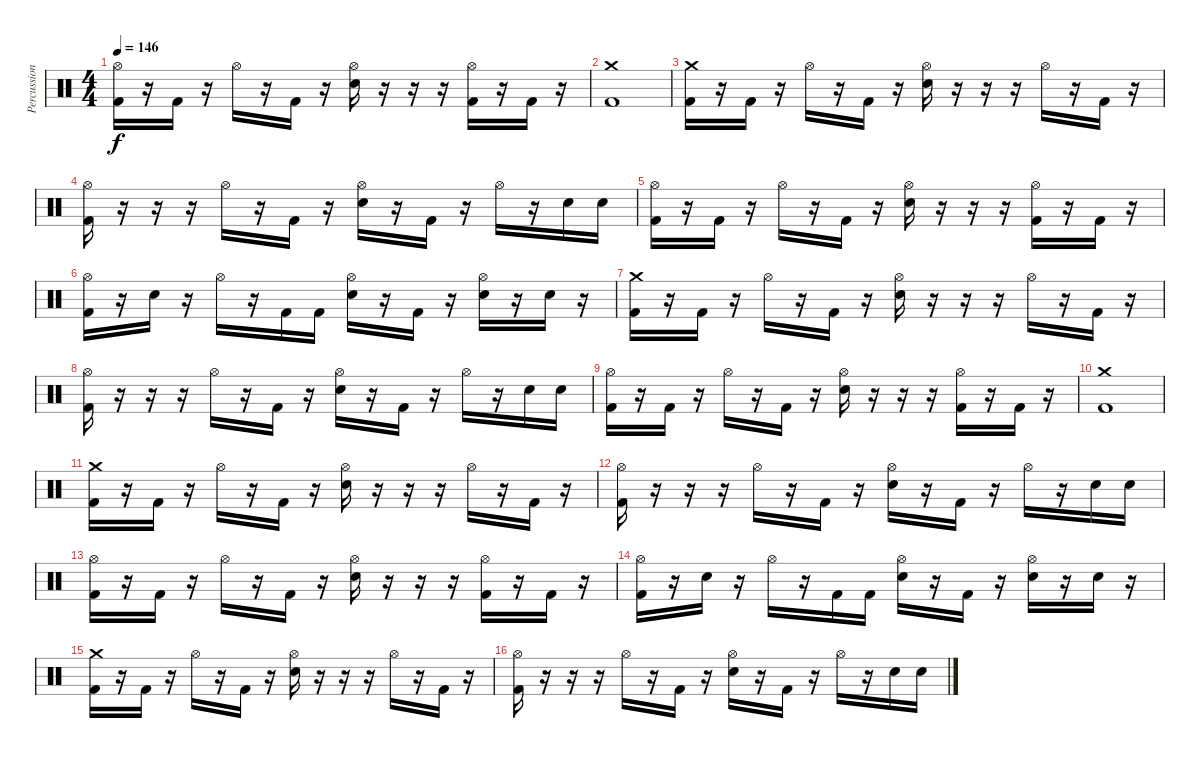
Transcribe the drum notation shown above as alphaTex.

\track ("Percussion" "Percussion") {instrument percussion}
\staff {score}
\articulation defaults
\ts (4 4)
\tempo 146
\clef neutral
\ks c
("Hi-Hat (open)" "Kick (hit) 2").16{dy f} r.16 "Kick (hit) 2".16 r.16 "Hi-Hat (open)".16 r.16 "Kick (hit) 2".16 r.16 ("Hi-Hat (open)" "Snare (hit) 2").16 r.16 r.16 r.16 ("Hi-Hat (open)" "Kick (hit) 2").16 r.16 "Kick (hit) 2".16 r.16 |
("Crash medium (hit)" "Kick (hit) 2").1 |
("Crash medium (hit)" "Kick (hit) 2").16 r.16 "Kick (hit) 2".16 r.16 "Hi-Hat (open)".16 r.16 "Kick (hit) 2".16 r.16 ("Hi-Hat (open)" "Snare (hit) 2").16 r.16 r.16 r.16 "Hi-Hat (open)".16 r.16 "Kick (hit) 2".16 r.16 |
("Hi-Hat (open)" "Kick (hit) 2").16 r.16 r.16 r.16 "Hi-Hat (open)".16 r.16 "Kick (hit) 2".16 r.16 ("Hi-Hat (open)" "Snare (hit) 2").16 r.16 "Kick (hit) 2".16 r.16 "Hi-Hat (open)".16 r.16 "Snare (hit) 2".16 "Snare (hit) 2".16 |
("Hi-Hat (open)" "Kick (hit) 2").16 r.16 "Kick (hit) 2".16 r.16 "Hi-Hat (open)".16 r.16 "Kick (hit) 2".16 r.16 ("Hi-Hat (open)" "Snare (hit) 2").16 r.16 r.16 r.16 ("Hi-Hat (open)" "Kick (hit) 2").16 r.16 "Kick (hit) 2".16 r.16 |
("Hi-Hat (open)" "Kick (hit) 2").16 r.16 "Snare (hit) 2".16 r.16 "Hi-Hat (open)".16 r.16 "Kick (hit) 2".16 "Kick (hit) 2".16 ("Hi-Hat (open)" "Snare (hit) 2").16 r.16 "Kick (hit) 2".16 r.16 ("Hi-Hat (open)" "Snare (hit) 2").16 r.16 "Snare (hit) 2".16 r.16 |
("Crash medium (hit)" "Kick (hit) 2").16 r.16 "Kick (hit) 2".16 r.16 "Hi-Hat (open)".16 r.16 "Kick (hit) 2".16 r.16 ("Hi-Hat (open)" "Snare (hit) 2").16 r.16 r.16 r.16 "Hi-Hat (open)".16 r.16 "Kick (hit) 2".16 r.16 |
("Hi-Hat (open)" "Kick (hit) 2").16 r.16 r.16 r.16 "Hi-Hat (open)".16 r.16 "Kick (hit) 2".16 r.16 ("Hi-Hat (open)" "Snare (hit) 2").16 r.16 "Kick (hit) 2".16 r.16 "Hi-Hat (open)".16 r.16 "Snare (hit) 2".16 "Snare (hit) 2".16 |
("Hi-Hat (open)" "Kick (hit) 2").16 r.16 "Kick (hit) 2".16 r.16 "Hi-Hat (open)".16 r.16 "Kick (hit) 2".16 r.16 ("Hi-Hat (open)" "Snare (hit) 2").16 r.16 r.16 r.16 ("Hi-Hat (open)" "Kick (hit) 2").16 r.16 "Kick (hit) 2".16 r.16 |
("Crash medium (hit)" "Kick (hit) 2").1 |
("Crash medium (hit)" "Kick (hit) 2").16 r.16 "Kick (hit) 2".16 r.16 "Hi-Hat (open)".16 r.16 "Kick (hit) 2".16 r.16 ("Hi-Hat (open)" "Snare (hit) 2").16 r.16 r.16 r.16 "Hi-Hat (open)".16 r.16 "Kick (hit) 2".16 r.16 |
("Hi-Hat (open)" "Kick (hit) 2").16 r.16 r.16 r.16 "Hi-Hat (open)".16 r.16 "Kick (hit) 2".16 r.16 ("Hi-Hat (open)" "Snare (hit) 2").16 r.16 "Kick (hit) 2".16 r.16 "Hi-Hat (open)".16 r.16 "Snare (hit) 2".16 "Snare (hit) 2".16 |
("Hi-Hat (open)" "Kick (hit) 2").16 r.16 "Kick (hit) 2".16 r.16 "Hi-Hat (open)".16 r.16 "Kick (hit) 2".16 r.16 ("Hi-Hat (open)" "Snare (hit) 2").16 r.16 r.16 r.16 ("Hi-Hat (open)" "Kick (hit) 2").16 r.16 "Kick (hit) 2".16 r.16 |
("Hi-Hat (open)" "Kick (hit) 2").16 r.16 "Snare (hit) 2".16 r.16 "Hi-Hat (open)".16 r.16 "Kick (hit) 2".16 "Kick (hit) 2".16 ("Hi-Hat (open)" "Snare (hit) 2").16 r.16 "Kick (hit) 2".16 r.16 ("Hi-Hat (open)" "Snare (hit) 2").16 r.16 "Snare (hit) 2".16 r.16 |
("Crash medium (hit)" "Kick (hit) 2").16 r.16 "Kick (hit) 2".16 r.16 "Hi-Hat (open)".16 r.16 "Kick (hit) 2".16 r.16 ("Hi-Hat (open)" "Snare (hit) 2").16 r.16 r.16 r.16 "Hi-Hat (open)".16 r.16 "Kick (hit) 2".16 r.16 |
("Hi-Hat (open)" "Kick (hit) 2").16 r.16 r.16 r.16 "Hi-Hat (open)".16 r.16 "Kick (hit) 2".16 r.16 ("Hi-Hat (open)" "Snare (hit) 2").16 r.16 "Kick (hit) 2".16 r.16 "Hi-Hat (open)".16 r.16 "Snare (hit) 2".16 "Snare (hit) 2".16
